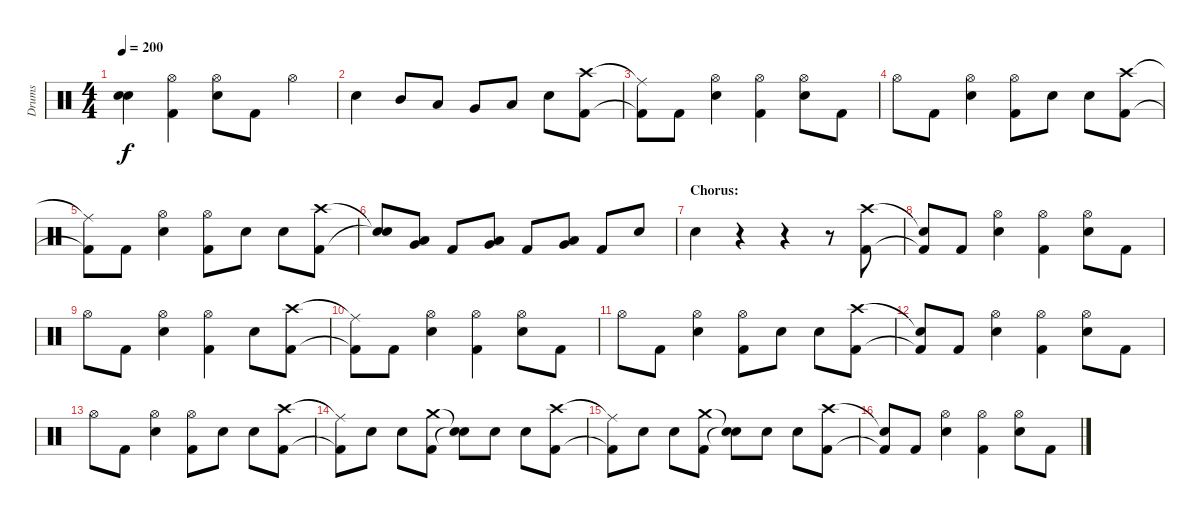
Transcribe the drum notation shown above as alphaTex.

\track ("Drums" "Drums") {instrument percussion}
\staff {score}
\articulation defaults
\ts (4 4)
\tempo 200
\clef neutral
\ks c
("Snare (hit)"{t} "Snare (hit)"{t}).4{dy f} ("Hi-Hat (open)" "Kick (hit) 2").4 ("Hi-Hat (open)" "Electric Snare (hit)").8 "Kick (hit) 2".8 "Hi-Hat (open)".4 |
"Electric Snare (hit)".4 "Mid Tom (hit)".8 "Low Tom (hit)".8 "Very Low Tom (hit)".8 "Low Floor Tom (hit)".8 "Electric Snare (hit)".8 ("Crash high (hit)" "Kick (hit) 2").8 |
("Ride (middle)"{t} "Kick (hit) 2"{t}).8 "Kick (hit) 2".8 ("Hi-Hat (open)" "Electric Snare (hit)").4 ("Hi-Hat (open)" "Kick (hit) 2").4 ("Hi-Hat (open)" "Electric Snare (hit)").8 "Kick (hit) 2".8 |
"Hi-Hat (open)".8 "Kick (hit) 2".8 ("Hi-Hat (open)" "Electric Snare (hit)").4 ("Hi-Hat (open)" "Kick (hit) 2").8 "Electric Snare (hit)".8 "Electric Snare (hit)".8 ("Crash high (hit)" "Kick (hit) 2").8 |
("Ride (middle)"{t} "Kick (hit) 2"{t}).8 "Kick (hit) 2".8 ("Hi-Hat (open)" "Electric Snare (hit)").4 ("Hi-Hat (open)" "Kick (hit) 2").8 "Electric Snare (hit)".8 "Electric Snare (hit)".8 ("Crash high (hit)" "Kick (hit) 2").8 |
("Snare (hit)"{t} "Snare (hit)"{t}).8 ("Very Low Tom (hit)" "Low Tom (hit)").8 "Kick (hit) 2".8 ("Very Low Tom (hit)" "Low Tom (hit)").8 "Kick (hit) 2".8 ("Very Low Tom (hit)" "Low Tom (hit)").8 "Kick (hit) 2".8 "Electric Snare (hit)".8 |
\section ("" "Chorus:")
"Electric Snare (hit)".4 r.4 r.4 r.8 ("Crash high (hit)" "Kick (hit) 2").8 |
("Snare (hit)"{t} "Kick (hit) 2"{t}).8 "Kick (hit) 2".8 ("Hi-Hat (open)" "Electric Snare (hit)").4 ("Hi-Hat (open)" "Kick (hit) 2").4 ("Hi-Hat (open)" "Electric Snare (hit)").8 "Kick (hit) 2".8 |
"Hi-Hat (open)".8 "Kick (hit) 2".8 ("Hi-Hat (open)" "Electric Snare (hit)").4 ("Hi-Hat (open)" "Kick (hit) 2").4 "Electric Snare (hit)".8 ("Crash high (hit)" "Kick (hit) 2").8 |
("Ride (middle)"{t} "Kick (hit) 2"{t}).8 "Kick (hit) 2".8 ("Hi-Hat (open)" "Electric Snare (hit)").4 ("Hi-Hat (open)" "Kick (hit) 2").4 ("Hi-Hat (open)" "Electric Snare (hit)").8 "Kick (hit) 2".8 |
"Hi-Hat (open)".8 "Kick (hit) 2".8 ("Hi-Hat (open)" "Electric Snare (hit)").4 ("Hi-Hat (open)" "Kick (hit) 2").8 "Electric Snare (hit)".8 "Electric Snare (hit)".8 ("Crash high (hit)" "Kick (hit) 2").8 |
("Snare (hit)"{t} "Kick (hit) 2"{t}).8 "Kick (hit) 2".8 ("Hi-Hat (open)" "Electric Snare (hit)").4 ("Hi-Hat (open)" "Kick (hit) 2").4 ("Hi-Hat (open)" "Electric Snare (hit)").8 "Kick (hit) 2".8 |
"Hi-Hat (open)".8 "Kick (hit) 2".8 ("Hi-Hat (open)" "Electric Snare (hit)").4 ("Hi-Hat (open)" "Kick (hit) 2").8 "Electric Snare (hit)".8 "Electric Snare (hit)".8 ("Crash high (hit)" "Kick (hit) 2").8 |
("Ride (middle)"{t} "Kick (hit) 2"{t}).8 "Electric Snare (hit)".8 "Electric Snare (hit)".8 ("Crash medium (hit)" "Kick (hit) 2").8 ("Snare (hit)"{t} "Snare (hit)"{t}).8 "Electric Snare (hit)".8 "Electric Snare (hit)".8 ("Crash high (hit)" "Kick (hit) 2").8 |
("Ride (middle)"{t} "Kick (hit) 2"{t}).8 "Electric Snare (hit)".8 "Electric Snare (hit)".8 ("Crash medium (hit)" "Kick (hit) 2").8 ("Snare (hit)"{t} "Snare (hit)"{t}).8 "Electric Snare (hit)".8 "Electric Snare (hit)".8 ("Crash high (hit)" "Kick (hit) 2").8 |
("Snare (hit)"{t} "Kick (hit) 2"{t}).8 "Kick (hit) 2".8 ("Hi-Hat (open)" "Electric Snare (hit)").4 ("Hi-Hat (open)" "Kick (hit) 2").4 ("Hi-Hat (open)" "Electric Snare (hit)").8 "Kick (hit) 2".8
